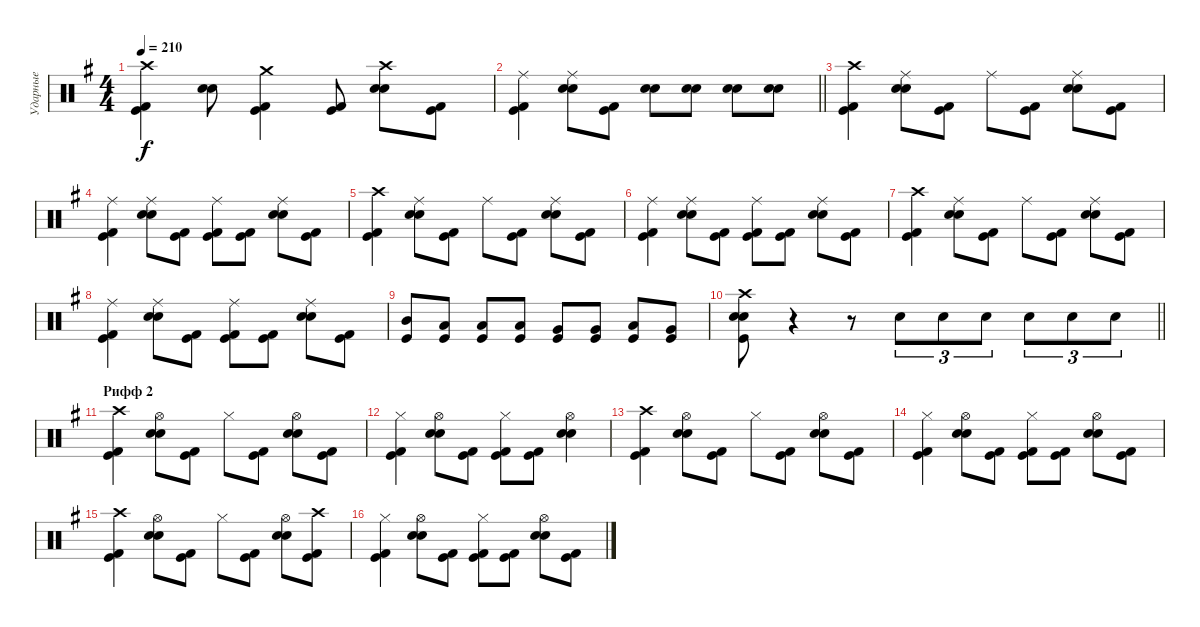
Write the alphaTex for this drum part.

\track ("Ударные" "Ударные") {instrument percussion}
\staff {score}
\articulation defaults
\ts (4 4)
\tempo 210
\clef neutral
\ks g
("Crash high (hit)" "Kick (hit) 2" "Kick (hit)").4{dy f} ("Electric Snare (hit)" "Snare (hit) 2").8 ("Crash medium (hit)" "Kick (hit) 2" "Kick (hit)").4 ("Kick (hit) 2" "Kick (hit)").8 ("Crash high (hit)" "Electric Snare (hit)" "Snare (hit) 2").8 ("Kick (hit) 2" "Kick (hit)").8 |
\barLineRight lightlight
("Ride (middle)" "Kick (hit) 2" "Kick (hit)").4 ("Ride (middle)" "Electric Snare (hit)" "Snare (hit) 2").8 ("Kick (hit) 2" "Kick (hit)").8 ("Electric Snare (hit)" "Snare (hit) 2").8 ("Electric Snare (hit)" "Snare (hit) 2").8 ("Electric Snare (hit)" "Snare (hit) 2").8 ("Electric Snare (hit)" "Snare (hit) 2").8 |
("Crash high (hit)" "Kick (hit) 2" "Kick (hit)").4 ("Ride (middle)" "Electric Snare (hit)" "Snare (hit) 2").8 ("Kick (hit) 2" "Kick (hit)").8 "Ride (middle)".8 ("Kick (hit) 2" "Kick (hit)").8 ("Ride (middle)" "Electric Snare (hit)" "Snare (hit) 2").8 ("Kick (hit) 2" "Kick (hit)").8 |
("Ride (middle)" "Kick (hit) 2" "Kick (hit)").4 ("Ride (middle)" "Electric Snare (hit)" "Snare (hit) 2").8 ("Kick (hit) 2" "Kick (hit)").8 ("Ride (middle)" "Kick (hit) 2" "Kick (hit)").8 ("Kick (hit) 2" "Kick (hit)").8 ("Ride (middle)" "Electric Snare (hit)" "Snare (hit) 2").8 ("Kick (hit) 2" "Kick (hit)").8 |
("Crash high (hit)" "Kick (hit) 2" "Kick (hit)").4 ("Ride (middle)" "Electric Snare (hit)" "Snare (hit) 2").8 ("Kick (hit) 2" "Kick (hit)").8 "Ride (middle)".8 ("Kick (hit) 2" "Kick (hit)").8 ("Ride (middle)" "Electric Snare (hit)" "Snare (hit) 2").8 ("Kick (hit) 2" "Kick (hit)").8 |
("Ride (middle)" "Kick (hit) 2" "Kick (hit)").4 ("Ride (middle)" "Electric Snare (hit)" "Snare (hit) 2").8 ("Kick (hit) 2" "Kick (hit)").8 ("Ride (middle)" "Kick (hit) 2" "Kick (hit)").8 ("Kick (hit) 2" "Kick (hit)").8 ("Ride (middle)" "Electric Snare (hit)" "Snare (hit) 2").8 ("Kick (hit) 2" "Kick (hit)").8 |
("Crash high (hit)" "Kick (hit) 2" "Kick (hit)").4 ("Ride (middle)" "Electric Snare (hit)" "Snare (hit) 2").8 ("Kick (hit) 2" "Kick (hit)").8 "Ride (middle)".8 ("Kick (hit) 2" "Kick (hit)").8 ("Ride (middle)" "Electric Snare (hit)" "Snare (hit) 2").8 ("Kick (hit) 2" "Kick (hit)").8 |
("Ride (middle)" "Kick (hit) 2" "Kick (hit)").4 ("Ride (middle)" "Electric Snare (hit)" "Snare (hit) 2").8 ("Kick (hit) 2" "Kick (hit)").8 ("Ride (middle)" "Kick (hit) 2" "Kick (hit)").8 ("Kick (hit) 2" "Kick (hit)").8 ("Ride (middle)" "Electric Snare (hit)" "Snare (hit) 2").8 ("Kick (hit) 2" "Kick (hit)").8 |
("Mid Tom (hit)" "Kick (hit)").8 ("Low Tom (hit)" "Kick (hit)").8 ("Low Tom (hit)" "Kick (hit)").8 ("Low Tom (hit)" "Kick (hit)").8 ("Very Low Tom (hit)" "Kick (hit)").8 ("Very Low Tom (hit)" "Kick (hit)").8 ("Low Tom (hit)" "Kick (hit)").8 ("Very Low Tom (hit)" "Kick (hit)").8 |
\barLineRight lightlight
("Crash high (hit)" "Electric Snare (hit)" "Snare (hit) 2" "Kick (hit)").8 r.4 r.8 "Electric Snare (hit)".8{tu (3 2)} "Electric Snare (hit)".8{tu (3 2)} "Electric Snare (hit)".8{tu (3 2)} "Electric Snare (hit)".8{tu (3 2)} "Electric Snare (hit)".8{tu (3 2)} "Electric Snare (hit)".8{tu (3 2)} |
\section ("" "Рифф 2")
("Crash high (hit)" "Kick (hit) 2" "Kick (hit)").4 ("Hi-Hat (open)" "Electric Snare (hit)" "Snare (hit) 2").8 ("Kick (hit) 2" "Kick (hit)").8 "Hi-Hat (closed)".8 ("Kick (hit) 2" "Kick (hit)").8 ("Hi-Hat (open)" "Electric Snare (hit)" "Snare (hit) 2").8 ("Kick (hit) 2" "Kick (hit)").8 |
("Hi-Hat (closed)" "Kick (hit) 2" "Kick (hit)").4 ("Hi-Hat (open)" "Electric Snare (hit)" "Snare (hit) 2").8 ("Kick (hit) 2" "Kick (hit)").8 ("Hi-Hat (closed)" "Kick (hit) 2" "Kick (hit)").8 ("Kick (hit) 2" "Kick (hit)").8 ("Hi-Hat (open)" "Electric Snare (hit)" "Snare (hit) 2").4 |
("Crash high (hit)" "Kick (hit) 2" "Kick (hit)").4 ("Hi-Hat (open)" "Electric Snare (hit)" "Snare (hit) 2").8 ("Kick (hit) 2" "Kick (hit)").8 "Hi-Hat (closed)".8 ("Kick (hit) 2" "Kick (hit)").8 ("Hi-Hat (open)" "Electric Snare (hit)" "Snare (hit) 2").8 ("Kick (hit) 2" "Kick (hit)").8 |
("Hi-Hat (closed)" "Kick (hit) 2" "Kick (hit)").4 ("Hi-Hat (open)" "Electric Snare (hit)" "Snare (hit) 2").8 ("Kick (hit) 2" "Kick (hit)").8 ("Hi-Hat (closed)" "Kick (hit) 2" "Kick (hit)").8 ("Kick (hit) 2" "Kick (hit)").8 ("Hi-Hat (open)" "Electric Snare (hit)" "Snare (hit) 2").8 ("Kick (hit) 2" "Kick (hit)").8 |
("Crash high (hit)" "Kick (hit) 2" "Kick (hit)").4 ("Hi-Hat (open)" "Electric Snare (hit)" "Snare (hit) 2").8 ("Kick (hit) 2" "Kick (hit)").8 "Hi-Hat (closed)".8 ("Kick (hit) 2" "Kick (hit)").8 ("Hi-Hat (open)" "Electric Snare (hit)" "Snare (hit) 2").8 ("Crash high (hit)" "Kick (hit) 2" "Kick (hit)").8 |
("Hi-Hat (closed)" "Kick (hit) 2" "Kick (hit)").4 ("Hi-Hat (open)" "Electric Snare (hit)" "Snare (hit) 2").8 ("Kick (hit) 2" "Kick (hit)").8 ("Hi-Hat (closed)" "Kick (hit) 2" "Kick (hit)").8 ("Kick (hit) 2" "Kick (hit)").8 ("Hi-Hat (open)" "Electric Snare (hit)" "Snare (hit) 2").8 ("Kick (hit) 2" "Kick (hit)").8
